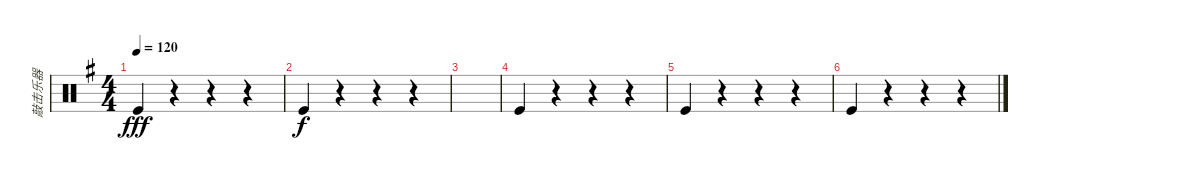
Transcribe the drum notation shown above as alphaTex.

\track ("敲击乐器" "敲击乐器") {instrument percussion}
\staff {score}
\articulation defaults
\ts (4 4)
\tempo 120
\clef neutral
\ks g "Kick (hit)".4{dy fff}
r.4 r.4 r.4 |
"Kick (hit)".4{dy f} r.4 r.4 r.4 |
|
"Kick (hit)".4 r.4 r.4 r.4 |
"Kick (hit)".4 r.4 r.4 r.4 |
"Kick (hit)".4 r.4 r.4 r.4
